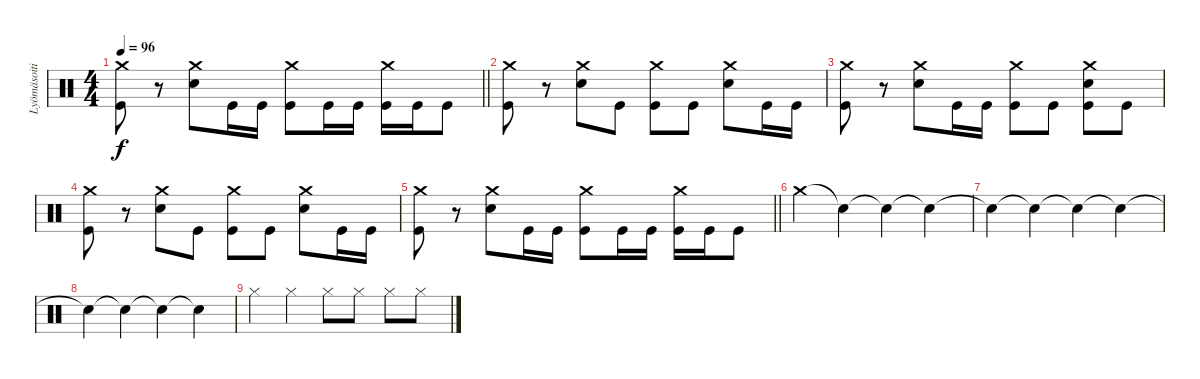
\track ("Lyömäsoitin" "Lyömäsoiti") {instrument percussion}
\staff {score}
\articulation defaults
\ts (4 4)
\tempo 96
\clef neutral
\barLineRight lightlight
\ks c
("Crash medium (hit)" "Kick (hit)").8{dy f} r.8 ("Crash medium (hit)" "Snare (hit) 2").8 "Kick (hit)".16 "Kick (hit)".16 ("Crash medium (hit)" "Kick (hit)").8 "Kick (hit)".16 "Kick (hit)".16 ("Crash medium (hit)" "Kick (hit)").16 "Kick (hit)".16 "Kick (hit)".8 |
("Crash medium (hit)" "Kick (hit)").8 r.8 ("Crash medium (hit)" "Snare (hit) 2").8 "Kick (hit)".8 ("Crash medium (hit)" "Kick (hit)").8 "Kick (hit)".8 ("Crash medium (hit)" "Snare (hit) 2").8 "Kick (hit)".16 "Kick (hit)".16 |
("Crash medium (hit)" "Kick (hit)").8 r.8 ("Crash medium (hit)" "Snare (hit) 2").8 "Kick (hit)".16 "Kick (hit)".16 ("Crash medium (hit)" "Kick (hit)").8 "Kick (hit)".8 ("Crash medium (hit)" "Snare (hit) 2" "Kick (hit)").8 "Kick (hit)".8 |
("Crash medium (hit)" "Kick (hit)").8 r.8 ("Crash medium (hit)" "Snare (hit) 2").8 "Kick (hit)".8 ("Crash medium (hit)" "Kick (hit)").8 "Kick (hit)".8 ("Crash medium (hit)" "Snare (hit) 2").8 "Kick (hit)".16 "Kick (hit)".16 |
\barLineRight lightlight
("Crash medium (hit)" "Kick (hit)").8 r.8 ("Crash medium (hit)" "Snare (hit) 2").8 "Kick (hit)".16 "Kick (hit)".16 ("Crash medium (hit)" "Kick (hit)").8 "Kick (hit)".16 "Kick (hit)".16 ("Crash medium (hit)" "Kick (hit)").16 "Kick (hit)".16 "Kick (hit)".8 |
"Crash medium (hit)".4 "Snare (hit)"{t}.4 "Snare (hit)"{t}.4 "Snare (hit)"{t}.4 |
"Snare (hit)"{t}.4 "Snare (hit)"{t}.4 "Snare (hit)"{t}.4 "Snare (hit)"{t}.4 |
"Snare (hit)"{t}.4 "Snare (hit)"{t}.4 "Snare (hit)"{t}.4 "Snare (hit)"{t}.4 |
"Hi-Hat (closed)".4 "Hi-Hat (closed)".4 "Hi-Hat (closed)".8 "Hi-Hat (closed)".8 "Hi-Hat (closed)".8 "Hi-Hat (closed)".8
